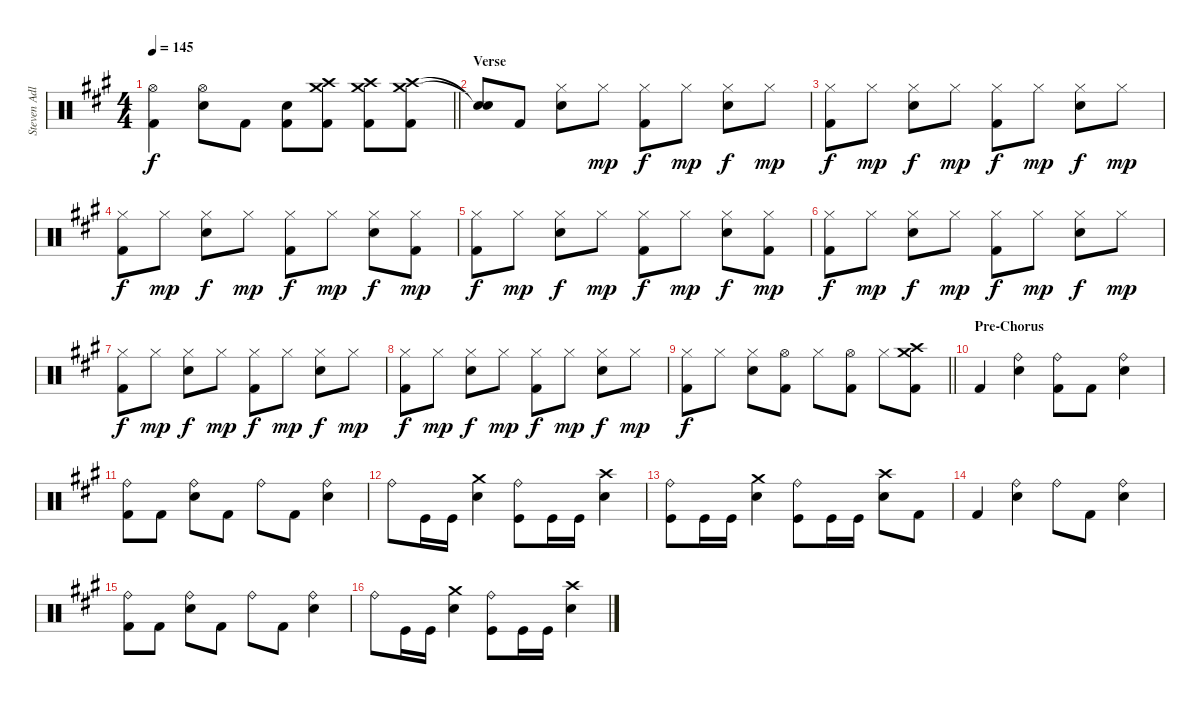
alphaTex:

\track ("Steven Adler - Drums" "Steven Adl") {instrument percussion}
\staff {score}
\articulation defaults
\ts (4 4)
\tempo 145
\clef neutral
\barLineRight lightlight
\ks a
("Hi-Hat (open)" "Kick (hit) 2").4{dy f} ("Hi-Hat (open)" "Snare (hit) 2").8 "Kick (hit) 2".8 ("Snare (hit) 2" "Kick (hit) 2").8 ("Crash medium (hit)" "Crash high (hit)" "Kick (hit) 2").8 ("Crash medium (hit)" "Crash high (hit)" "Kick (hit) 2").8 ("Crash medium (hit)" "Crash high (hit)" "Kick (hit) 2").8 |
\section ("" "Verse")
("Snare (hit)"{t} "Snare (hit)"{t}).8 "Kick (hit) 2".8 ("Hi-Hat (closed)" "Snare (hit) 2").8 "Hi-Hat (closed)".8{dy mp} ("Hi-Hat (closed)" "Kick (hit) 2").8{dy f} "Hi-Hat (closed)".8{dy mp} ("Hi-Hat (closed)" "Snare (hit) 2").8{dy f} "Hi-Hat (closed)".8{dy mp} |
("Hi-Hat (closed)" "Kick (hit) 2").8{dy f} "Hi-Hat (closed)".8{dy mp} ("Hi-Hat (closed)" "Snare (hit) 2").8{dy f} "Hi-Hat (closed)".8{dy mp} ("Hi-Hat (closed)" "Kick (hit) 2").8{dy f} "Hi-Hat (closed)".8{dy mp} ("Hi-Hat (closed)" "Snare (hit) 2").8{dy f} "Hi-Hat (closed)".8{dy mp} |
("Hi-Hat (closed)" "Kick (hit) 2").8{dy f} "Hi-Hat (closed)".8{dy mp} ("Hi-Hat (closed)" "Snare (hit) 2").8{dy f} "Hi-Hat (closed)".8{dy mp} ("Hi-Hat (closed)" "Kick (hit) 2").8{dy f} "Hi-Hat (closed)".8{dy mp} ("Hi-Hat (closed)" "Snare (hit) 2").8{dy f} ("Hi-Hat (closed)" "Kick (hit) 2").8{dy mp} |
("Hi-Hat (closed)" "Kick (hit) 2").8{dy f} "Hi-Hat (closed)".8{dy mp} ("Hi-Hat (closed)" "Snare (hit) 2").8{dy f} "Hi-Hat (closed)".8{dy mp} ("Hi-Hat (closed)" "Kick (hit) 2").8{dy f} "Hi-Hat (closed)".8{dy mp} ("Hi-Hat (closed)" "Snare (hit) 2").8{dy f} ("Hi-Hat (closed)" "Kick (hit) 2").8{dy mp} |
("Hi-Hat (closed)" "Kick (hit) 2").8{dy f} "Hi-Hat (closed)".8{dy mp} ("Hi-Hat (closed)" "Snare (hit) 2").8{dy f} "Hi-Hat (closed)".8{dy mp} ("Hi-Hat (closed)" "Kick (hit) 2").8{dy f} "Hi-Hat (closed)".8{dy mp} ("Hi-Hat (closed)" "Snare (hit) 2").8{dy f} "Hi-Hat (closed)".8{dy mp} |
("Hi-Hat (closed)" "Kick (hit) 2").8{dy f} "Hi-Hat (closed)".8{dy mp} ("Hi-Hat (closed)" "Snare (hit) 2").8{dy f} "Hi-Hat (closed)".8{dy mp} ("Hi-Hat (closed)" "Kick (hit) 2").8{dy f} "Hi-Hat (closed)".8{dy mp} ("Hi-Hat (closed)" "Snare (hit) 2").8{dy f} "Hi-Hat (closed)".8{dy mp} |
("Hi-Hat (closed)" "Kick (hit) 2").8{dy f} "Hi-Hat (closed)".8{dy mp} ("Hi-Hat (closed)" "Snare (hit) 2").8{dy f} "Hi-Hat (closed)".8{dy mp} ("Hi-Hat (closed)" "Kick (hit) 2").8{dy f} "Hi-Hat (closed)".8{dy mp} ("Hi-Hat (closed)" "Snare (hit) 2").8{dy f} "Hi-Hat (closed)".8{dy mp} |
\barLineRight lightlight
("Hi-Hat (closed)" "Kick (hit) 2").8{dy f} "Hi-Hat (closed)".8 ("Hi-Hat (closed)" "Snare (hit) 2").8 ("Hi-Hat (open)" "Kick (hit) 2").8 "Hi-Hat (closed)".8 ("Hi-Hat (open)" "Kick (hit) 2").8 "Hi-Hat (closed)".8 ("Crash medium (hit)" "Crash high (hit)" "Kick (hit) 2").8 |
\section ("" "Pre-Chorus")
"Kick (hit) 2".4 ("Ride (bell)" "Snare (hit) 2").4 ("Ride (bell)" "Kick (hit) 2").8 "Kick (hit) 2".8 ("Ride (bell)" "Snare (hit) 2").4 |
("Ride (bell)" "Kick (hit) 2").8 "Kick (hit) 2".8 ("Ride (bell)" "Snare (hit) 2").8 "Kick (hit) 2".8 "Ride (bell)".8 "Kick (hit) 2".8 ("Ride (bell)" "Snare (hit) 2").4 |
"Ride (bell)".8 "Kick (hit)".16 "Kick (hit)".16 ("Crash medium (hit)" "Snare (hit) 2").4 ("Ride (bell)" "Kick (hit)").8 "Kick (hit)".16 "Kick (hit)".16 ("Crash high (hit)" "Snare (hit) 2").4 |
("Ride (bell)" "Kick (hit)").8 "Kick (hit)".16 "Kick (hit)".16 ("Crash medium (hit)" "Snare (hit) 2").4 ("Ride (bell)" "Kick (hit)").8 "Kick (hit)".16 "Kick (hit)".16 ("Crash high (hit)" "Snare (hit) 2").8 "Kick (hit) 2".8 |
"Kick (hit) 2".4 ("Ride (bell)" "Snare (hit) 2").4 "Ride (bell)".8 "Kick (hit) 2".8 ("Ride (bell)" "Snare (hit) 2").4 |
("Ride (bell)" "Kick (hit) 2").8 "Kick (hit) 2".8 ("Ride (bell)" "Snare (hit) 2").8 "Kick (hit) 2".8 "Ride (bell)".8 "Kick (hit) 2".8 ("Ride (bell)" "Snare (hit) 2").4 |
"Ride (bell)".8 "Kick (hit)".16 "Kick (hit)".16 ("Crash medium (hit)" "Snare (hit) 2").4 ("Ride (bell)" "Kick (hit)").8 "Kick (hit)".16 "Kick (hit)".16 ("Crash high (hit)" "Snare (hit) 2").4
